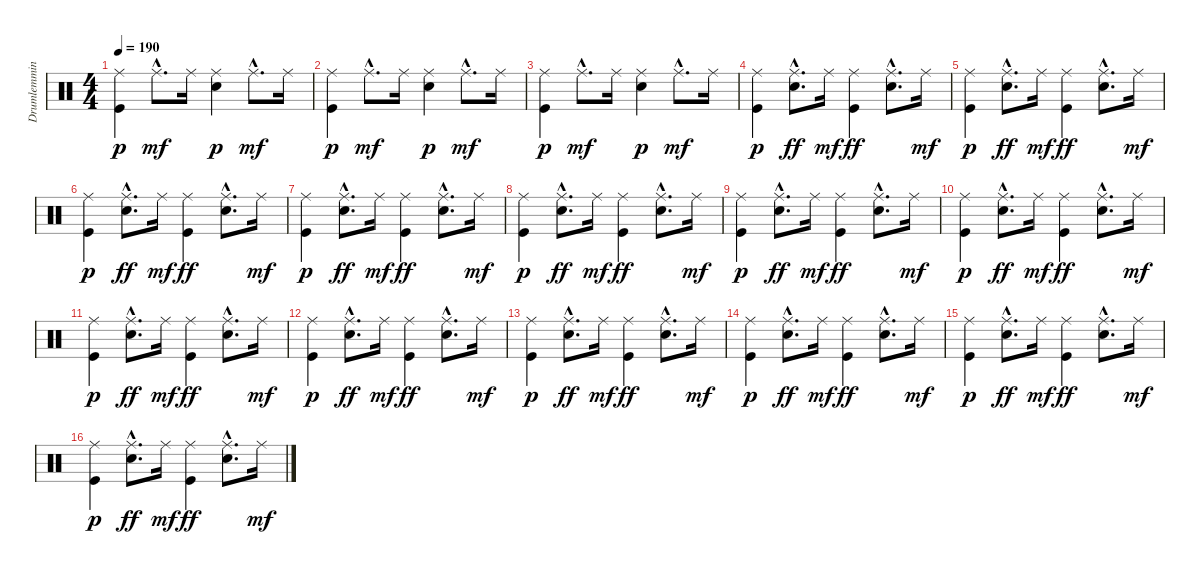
\track ("Drumlemming" "Drumlemmin") {instrument percussion}
\staff {score}
\articulation defaults
\ts (4 4)
\tempo 190
\clef neutral
\ks c
("Kick (hit)" "Ride (middle)").4{dy p} "Ride (middle)"{hac}.8{d dy mf} "Ride (middle)".16 ("Snare (hit) 2" "Ride (middle)").4{dy p} "Ride (middle)"{hac}.8{d dy mf} "Ride (middle)".16 |
("Kick (hit)" "Ride (middle)").4{dy p} "Ride (middle)"{hac}.8{d dy mf} "Ride (middle)".16 ("Snare (hit) 2" "Ride (middle)").4{dy p} "Ride (middle)"{hac}.8{d dy mf} "Ride (middle)".16 |
("Kick (hit)" "Ride (middle)").4{dy p} "Ride (middle)"{hac}.8{d dy mf} "Ride (middle)".16 ("Snare (hit) 2" "Ride (middle)").4{dy p} "Ride (middle)"{hac}.8{d dy mf} "Ride (middle)".16 |
("Kick (hit)" "Ride (middle)").4{dy p} ("Ride (middle)"{hac} "Snare (hit) 2"{hac}).8{d dy ff} "Ride (middle)".16{dy mf} ("Ride (middle)" "Kick (hit)").4{dy ff} ("Ride (middle)"{hac} "Snare (hit) 2"{hac}).8{d} "Ride (middle)".16{dy mf} |
("Kick (hit)" "Ride (middle)").4{dy p} ("Ride (middle)"{hac} "Snare (hit) 2"{hac}).8{d dy ff} "Ride (middle)".16{dy mf} ("Ride (middle)" "Kick (hit)").4{dy ff} ("Ride (middle)"{hac} "Snare (hit) 2"{hac}).8{d} "Ride (middle)".16{dy mf} |
("Kick (hit)" "Ride (middle)").4{dy p} ("Ride (middle)"{hac} "Snare (hit) 2"{hac}).8{d dy ff} "Ride (middle)".16{dy mf} ("Ride (middle)" "Kick (hit)").4{dy ff} ("Ride (middle)"{hac} "Snare (hit) 2"{hac}).8{d} "Ride (middle)".16{dy mf} |
("Kick (hit)" "Ride (middle)").4{dy p} ("Ride (middle)"{hac} "Snare (hit) 2"{hac}).8{d dy ff} "Ride (middle)".16{dy mf} ("Ride (middle)" "Kick (hit)").4{dy ff} ("Ride (middle)"{hac} "Snare (hit) 2"{hac}).8{d} "Ride (middle)".16{dy mf} |
("Kick (hit)" "Ride (middle)").4{dy p} ("Ride (middle)"{hac} "Snare (hit) 2"{hac}).8{d dy ff} "Ride (middle)".16{dy mf} ("Ride (middle)" "Kick (hit)").4{dy ff} ("Ride (middle)"{hac} "Snare (hit) 2"{hac}).8{d} "Ride (middle)".16{dy mf} |
("Kick (hit)" "Ride (middle)").4{dy p} ("Ride (middle)"{hac} "Snare (hit) 2"{hac}).8{d dy ff} "Ride (middle)".16{dy mf} ("Ride (middle)" "Kick (hit)").4{dy ff} ("Ride (middle)"{hac} "Snare (hit) 2"{hac}).8{d} "Ride (middle)".16{dy mf} |
("Kick (hit)" "Ride (middle)").4{dy p} ("Ride (middle)"{hac} "Snare (hit) 2"{hac}).8{d dy ff} "Ride (middle)".16{dy mf} ("Ride (middle)" "Kick (hit)").4{dy ff} ("Ride (middle)"{hac} "Snare (hit) 2"{hac}).8{d} "Ride (middle)".16{dy mf} |
("Kick (hit)" "Ride (middle)").4{dy p} ("Ride (middle)"{hac} "Snare (hit) 2"{hac}).8{d dy ff} "Ride (middle)".16{dy mf} ("Ride (middle)" "Kick (hit)").4{dy ff} ("Ride (middle)"{hac} "Snare (hit) 2"{hac}).8{d} "Ride (middle)".16{dy mf} |
("Kick (hit)" "Ride (middle)").4{dy p} ("Ride (middle)"{hac} "Snare (hit) 2"{hac}).8{d dy ff} "Ride (middle)".16{dy mf} ("Ride (middle)" "Kick (hit)").4{dy ff} ("Ride (middle)"{hac} "Snare (hit) 2"{hac}).8{d} "Ride (middle)".16{dy mf} |
("Kick (hit)" "Ride (middle)").4{dy p} ("Ride (middle)"{hac} "Snare (hit) 2"{hac}).8{d dy ff} "Ride (middle)".16{dy mf} ("Ride (middle)" "Kick (hit)").4{dy ff} ("Ride (middle)"{hac} "Snare (hit) 2"{hac}).8{d} "Ride (middle)".16{dy mf} |
("Kick (hit)" "Ride (middle)").4{dy p} ("Ride (middle)"{hac} "Snare (hit) 2"{hac}).8{d dy ff} "Ride (middle)".16{dy mf} ("Ride (middle)" "Kick (hit)").4{dy ff} ("Ride (middle)"{hac} "Snare (hit) 2"{hac}).8{d} "Ride (middle)".16{dy mf} |
("Kick (hit)" "Ride (middle)").4{dy p} ("Ride (middle)"{hac} "Snare (hit) 2"{hac}).8{d dy ff} "Ride (middle)".16{dy mf} ("Ride (middle)" "Kick (hit)").4{dy ff} ("Ride (middle)"{hac} "Snare (hit) 2"{hac}).8{d} "Ride (middle)".16{dy mf} |
("Kick (hit)" "Ride (middle)").4{dy p} ("Ride (middle)"{hac} "Snare (hit) 2"{hac}).8{d dy ff} "Ride (middle)".16{dy mf} ("Ride (middle)" "Kick (hit)").4{dy ff} ("Ride (middle)"{hac} "Snare (hit) 2"{hac}).8{d} "Ride (middle)".16{dy mf}
